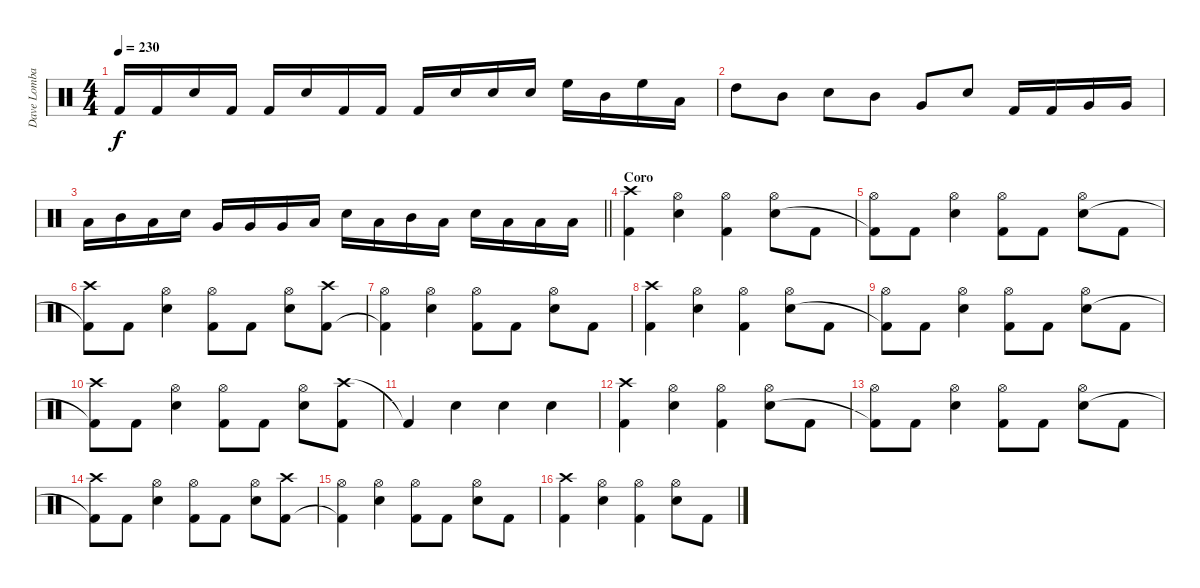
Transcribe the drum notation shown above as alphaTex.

\track ("Dave Lombardo" "Dave Lomba") {instrument percussion}
\staff {score}
\articulation defaults
\ts (4 4)
\tempo 230
\clef neutral
\ks c "Kick (hit) 2".16{dy f} "Kick (hit) 2".16 "Snare (hit) 2".16 "Kick (hit) 2".16 "Kick (hit) 2".16 "Snare (hit) 2".16 "Kick (hit) 2".16 "Kick (hit) 2".16 "Kick (hit) 2".16 "Snare (hit) 2".16 "Snare (hit) 2".16 "Snare (hit) 2".16 "High Floor Tom (hit)".16 "Mid Tom (hit)".16 "High Floor Tom (hit)".16 "Low Tom (hit)".16
|
"High Tom (hit)".8 "Mid Tom (hit)".8 "Snare (hit) 2".8 "Mid Tom (hit)".8 "Very Low Tom (hit)".8 "Snare (hit) 2".8 "Kick (hit) 2".16 "Kick (hit) 2".16 "Very Low Tom (hit)".16 "Very Low Tom (hit)".16 |
\barLineRight lightlight "Low Tom (hit)".16 "Mid Tom (hit)".16 "Low Tom (hit)".16 "Snare (hit) 2".16 "Very Low Tom (hit)".16 "Very Low Tom (hit)".16 "Very Low Tom (hit)".16 "Low Floor Tom (hit)".16 "Snare (hit) 2".16 "Low Floor Tom (hit)".16 "Mid Tom (hit)".16 "Low Tom (hit)".16 "Snare (hit) 2".16 "Low Floor Tom (hit)".16 "Low Floor Tom (hit)".16 "Low Floor Tom (hit)".16
|
\section ("" "Coro")
("Crash high (hit)" "Kick (hit) 2").4 ("Hi-Hat (open)" "Snare (hit) 2").4 ("Hi-Hat (open)" "Kick (hit) 2").4 ("Hi-Hat (open)" "Snare (hit) 2").8 "Kick (hit) 2".8 |
("Hi-Hat (open)" "Kick (hit) 2"{t}).8 "Kick (hit) 2".8 ("Hi-Hat (open)" "Snare (hit) 2").4 ("Hi-Hat (open)" "Kick (hit) 2").8 "Kick (hit) 2".8 ("Hi-Hat (open)" "Snare (hit) 2").8 "Kick (hit) 2".8 |
("Crash high (hit)" "Kick (hit) 2"{t}).8 "Kick (hit) 2".8 ("Hi-Hat (open)" "Snare (hit) 2").4 ("Hi-Hat (open)" "Kick (hit) 2").8 "Kick (hit) 2".8 ("Hi-Hat (open)" "Snare (hit) 2").8 ("Crash high (hit)" "Kick (hit) 2").8 |
("Hi-Hat (open)" "Kick (hit) 2"{t}).4 ("Hi-Hat (open)" "Snare (hit) 2").4 ("Hi-Hat (open)" "Kick (hit) 2").8 "Kick (hit) 2".8 ("Hi-Hat (open)" "Snare (hit) 2").8 "Kick (hit) 2".8 |
("Crash high (hit)" "Kick (hit) 2").4 ("Hi-Hat (open)" "Snare (hit) 2").4 ("Hi-Hat (open)" "Kick (hit) 2").4 ("Hi-Hat (open)" "Snare (hit) 2").8 "Kick (hit) 2".8 |
("Hi-Hat (open)" "Kick (hit) 2"{t}).8 "Kick (hit) 2".8 ("Hi-Hat (open)" "Snare (hit) 2").4 ("Hi-Hat (open)" "Kick (hit) 2").8 "Kick (hit) 2".8 ("Hi-Hat (open)" "Snare (hit) 2").8 "Kick (hit) 2".8 |
("Crash high (hit)" "Kick (hit) 2"{t}).8 "Kick (hit) 2".8 ("Hi-Hat (open)" "Snare (hit) 2").4 ("Hi-Hat (open)" "Kick (hit) 2").8 "Kick (hit) 2".8 ("Hi-Hat (open)" "Snare (hit) 2").8 ("Crash high (hit)" "Kick (hit) 2").8 |
"Kick (hit) 2"{t}.4 "Snare (hit) 2".4 "Snare (hit) 2".4 "Snare (hit) 2".4 |
("Crash high (hit)" "Kick (hit) 2").4 ("Hi-Hat (open)" "Snare (hit) 2").4 ("Hi-Hat (open)" "Kick (hit) 2").4 ("Hi-Hat (open)" "Snare (hit) 2").8 "Kick (hit) 2".8 |
("Hi-Hat (open)" "Kick (hit) 2"{t}).8 "Kick (hit) 2".8 ("Hi-Hat (open)" "Snare (hit) 2").4 ("Hi-Hat (open)" "Kick (hit) 2").8 "Kick (hit) 2".8 ("Hi-Hat (open)" "Snare (hit) 2").8 "Kick (hit) 2".8 |
("Crash high (hit)" "Kick (hit) 2"{t}).8 "Kick (hit) 2".8 ("Hi-Hat (open)" "Snare (hit) 2").4 ("Hi-Hat (open)" "Kick (hit) 2").8 "Kick (hit) 2".8 ("Hi-Hat (open)" "Snare (hit) 2").8 ("Crash high (hit)" "Kick (hit) 2").8 |
("Hi-Hat (open)" "Kick (hit) 2"{t}).4 ("Hi-Hat (open)" "Snare (hit) 2").4 ("Hi-Hat (open)" "Kick (hit) 2").8 "Kick (hit) 2".8 ("Hi-Hat (open)" "Snare (hit) 2").8 "Kick (hit) 2".8 |
("Crash high (hit)" "Kick (hit) 2").4 ("Hi-Hat (open)" "Snare (hit) 2").4 ("Hi-Hat (open)" "Kick (hit) 2").4 ("Hi-Hat (open)" "Snare (hit) 2").8 "Kick (hit) 2".8
